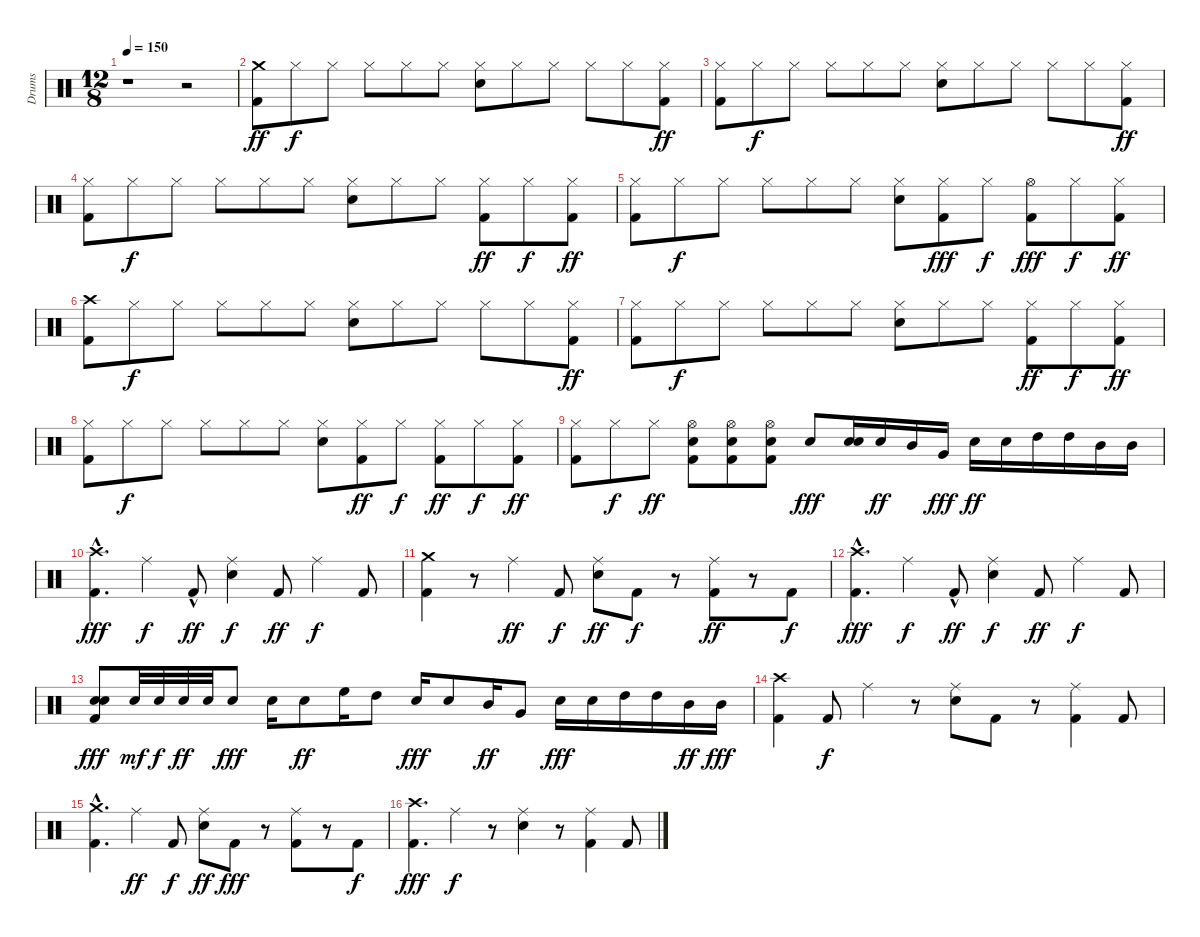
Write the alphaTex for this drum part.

\track ("Drums" "Drums") {instrument percussion}
\staff {score}
\articulation defaults
\ts (12 8)
\tempo 150
\clef neutral
\ks c
r.1{dy f} r.2 |
("Crash medium (hit)" "Kick (hit) 2").8{dy ff} "Hi-Hat (closed)".8{dy f} "Hi-Hat (closed)".8 "Hi-Hat (closed)".8 "Hi-Hat (closed)".8 "Hi-Hat (closed)".8 ("Hi-Hat (closed)" "Snare (hit) 2").8 "Hi-Hat (closed)".8 "Hi-Hat (closed)".8 "Hi-Hat (closed)".8 "Hi-Hat (closed)".8 ("Hi-Hat (closed)" "Kick (hit) 2").8{dy ff} |
("Hi-Hat (closed)" "Kick (hit) 2").8 "Hi-Hat (closed)".8{dy f} "Hi-Hat (closed)".8 "Hi-Hat (closed)".8 "Hi-Hat (closed)".8 "Hi-Hat (closed)".8 ("Hi-Hat (closed)" "Snare (hit) 2").8 "Hi-Hat (closed)".8 "Hi-Hat (closed)".8 "Hi-Hat (closed)".8 "Hi-Hat (closed)".8 ("Hi-Hat (closed)" "Kick (hit) 2").8{dy ff} |
("Hi-Hat (closed)" "Kick (hit) 2").8 "Hi-Hat (closed)".8{dy f} "Hi-Hat (closed)".8 "Hi-Hat (closed)".8 "Hi-Hat (closed)".8 "Hi-Hat (closed)".8 ("Hi-Hat (closed)" "Snare (hit) 2").8 "Hi-Hat (closed)".8 "Hi-Hat (closed)".8 ("Hi-Hat (closed)" "Kick (hit) 2").8{dy ff} "Hi-Hat (closed)".8{dy f} ("Hi-Hat (closed)" "Kick (hit) 2").8{dy ff} |
("Hi-Hat (closed)" "Kick (hit) 2").8 "Hi-Hat (closed)".8{dy f} "Hi-Hat (closed)".8 "Hi-Hat (closed)".8 "Hi-Hat (closed)".8 "Hi-Hat (closed)".8 ("Hi-Hat (closed)" "Snare (hit) 2").8 ("Hi-Hat (closed)" "Kick (hit) 2").8{dy fff} "Hi-Hat (closed)".8{dy f} ("Hi-Hat (open)" "Kick (hit) 2").8{dy fff} "Hi-Hat (closed)".8{dy f} ("Hi-Hat (closed)" "Kick (hit) 2").8{dy ff} |
("Crash high (hit)" "Kick (hit) 2").8 "Hi-Hat (closed)".8{dy f} "Hi-Hat (closed)".8 "Hi-Hat (closed)".8 "Hi-Hat (closed)".8 "Hi-Hat (closed)".8 ("Hi-Hat (closed)" "Snare (hit) 2").8 "Hi-Hat (closed)".8 "Hi-Hat (closed)".8 "Hi-Hat (closed)".8 "Hi-Hat (closed)".8 ("Hi-Hat (closed)" "Kick (hit) 2").8{dy ff} |
("Hi-Hat (closed)" "Kick (hit) 2").8 "Hi-Hat (closed)".8{dy f} "Hi-Hat (closed)".8 "Hi-Hat (closed)".8 "Hi-Hat (closed)".8 "Hi-Hat (closed)".8 ("Hi-Hat (closed)" "Snare (hit) 2").8 "Hi-Hat (closed)".8 "Hi-Hat (closed)".8 ("Hi-Hat (closed)" "Kick (hit) 2").8{dy ff} "Hi-Hat (closed)".8{dy f} ("Hi-Hat (closed)" "Kick (hit) 2").8{dy ff} |
("Hi-Hat (closed)" "Kick (hit) 2").8 "Hi-Hat (closed)".8{dy f} "Hi-Hat (closed)".8 "Hi-Hat (closed)".8 "Hi-Hat (closed)".8 "Hi-Hat (closed)".8 ("Hi-Hat (closed)" "Snare (hit) 2").8 ("Hi-Hat (closed)" "Kick (hit) 2").8{dy ff} "Hi-Hat (closed)".8{dy f} ("Hi-Hat (closed)" "Kick (hit) 2").8{dy ff} "Hi-Hat (closed)".8{dy f} ("Hi-Hat (closed)" "Kick (hit) 2").8{dy ff} |
("Hi-Hat (closed)" "Kick (hit) 2").8 "Hi-Hat (closed)".8{dy f} "Hi-Hat (closed)".8{dy ff} ("Hi-Hat (open)" "Snare (hit) 2" "Kick (hit) 2").8 ("Hi-Hat (open)" "Snare (hit) 2" "Kick (hit) 2").8 ("Hi-Hat (open)" "Snare (hit) 2" "Kick (hit) 2").8 "Snare (hit) 2".8{dy fff} ("Snare (hit) 2" "Snare (hit) 2").16 "Snare (hit) 2".16{dy ff} "Mid Tom (hit)".16 "Very Low Tom (hit)".16{dy fff} "Snare (hit) 2".16{dy ff} "Snare (hit) 2".16 "High Tom (hit)".16 "High Tom (hit)".16 "Mid Tom (hit)".16 "Mid Tom (hit)".16 |
("Crash high (hit)" "Kick (hit) 2"{hac}).4{d dy fff} "Ride (middle)".4{dy f} "Kick (hit) 2"{hac}.8{dy ff} ("Ride (middle)" "Snare (hit) 2").4{dy f} "Kick (hit) 2".8{dy ff} "Ride (middle)".4{dy f} "Kick (hit) 2".8 |
("Crash medium (hit)" "Kick (hit) 2").4 r.8 "Ride (middle)".4{dy ff} "Kick (hit) 2".8{dy f} ("Ride (middle)" "Snare (hit) 2").8{dy ff} "Kick (hit) 2".8{dy f} r.8 ("Ride (middle)" "Kick (hit) 2").8{dy ff} r.8 "Kick (hit) 2".8{dy f} |
("Crash high (hit)" "Kick (hit) 2"{hac}).4{d dy fff} "Ride (middle)".4{dy f} "Kick (hit) 2"{hac}.8{dy ff} ("Ride (middle)" "Snare (hit) 2").4{dy f} "Kick (hit) 2".8{dy ff} "Ride (middle)".4{dy f} "Kick (hit) 2".8 |
("Snare (hit) 2" "Snare (hit) 2" "Kick (hit) 2").8{dy fff} "Snare (hit) 2".32{dy mf} "Snare (hit) 2".32{dy f} "Snare (hit) 2".32{dy ff} "Snare (hit) 2".32 "Snare (hit) 2".8{dy fff} "Snare (hit) 2".16 "Snare (hit) 2".8{dy ff} "High Floor Tom (hit)".16 "High Tom (hit)".8 "Snare (hit) 2".16{dy fff} "Snare (hit) 2".8 "Mid Tom (hit)".16{dy ff} "Very Low Tom (hit)".8 "Snare (hit) 2".16{dy fff} "Snare (hit) 2".16 "High Tom (hit)".16 "High Tom (hit)".16 "Mid Tom (hit)".16{dy ff} "Mid Tom (hit)".16{dy fff} |
("Crash high (hit)" "Kick (hit) 2").4 "Kick (hit) 2".8{dy f} "Ride (middle)".4 r.8 ("Ride (middle)" "Snare (hit) 2").8 "Kick (hit) 2".8 r.8 ("Ride (middle)" "Kick (hit) 2").4 "Kick (hit) 2".8 |
("Crash medium (hit)" "Kick (hit) 2"{hac}).4{d} "Ride (middle)".4{dy ff} "Kick (hit) 2".8{dy f} ("Ride (middle)" "Snare (hit) 2").8{dy ff} "Kick (hit) 2".8{dy fff} r.8 ("Ride (middle)" "Kick (hit) 2").8 r.8 "Kick (hit) 2".8{dy f} |
("Crash high (hit)" "Kick (hit) 2").4{d dy fff} "Ride (middle)".4{dy f} r.8 ("Ride (middle)" "Snare (hit) 2").4 r.8 ("Ride (middle)" "Kick (hit) 2").4 "Kick (hit) 2".8
